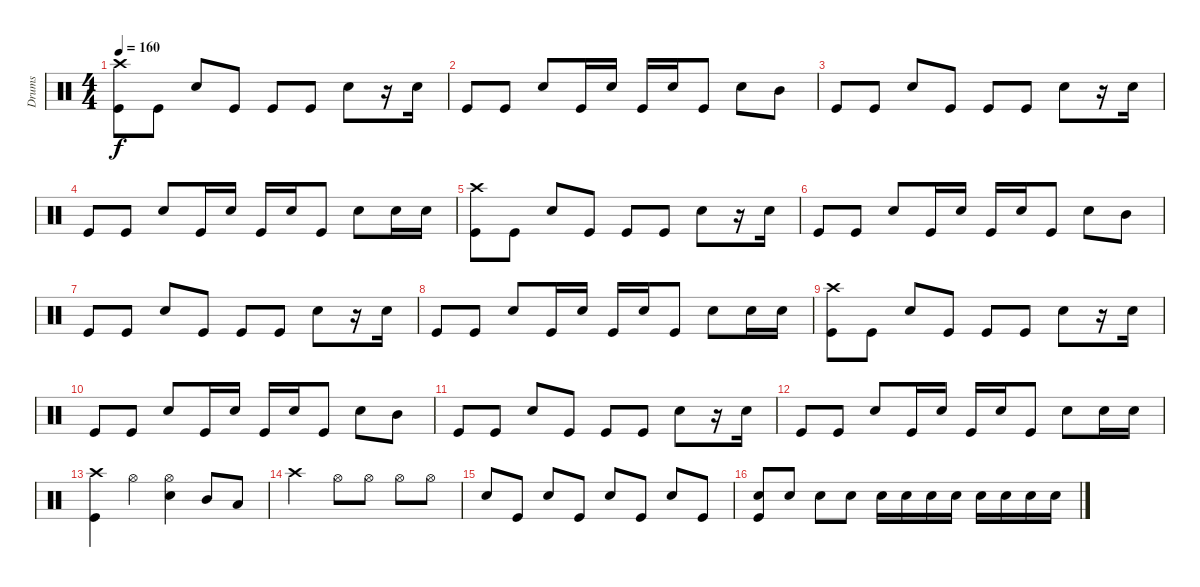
\track ("Drums" "Drums") {instrument percussion}
\staff {score}
\articulation defaults
\ts (4 4)
\tempo 160
\clef neutral
\ks c
("Crash high (hit)" "Kick (hit)").8{dy f} "Kick (hit)".8 "Snare (hit) 2".8 "Kick (hit)".8 "Kick (hit)".8 "Kick (hit)".8 "Snare (hit) 2".8 r.16 "Snare (hit) 2".16 |
"Kick (hit)".8 "Kick (hit)".8 "Snare (hit) 2".8 "Kick (hit)".16 "Snare (hit) 2".16 "Kick (hit)".16 "Snare (hit) 2".16 "Kick (hit)".8 "Snare (hit) 2".8 "Mid Tom (hit)".8 |
"Kick (hit)".8 "Kick (hit)".8 "Snare (hit) 2".8 "Kick (hit)".8 "Kick (hit)".8 "Kick (hit)".8 "Snare (hit) 2".8 r.16 "Snare (hit) 2".16 |
"Kick (hit)".8 "Kick (hit)".8 "Snare (hit) 2".8 "Kick (hit)".16 "Snare (hit) 2".16 "Kick (hit)".16 "Snare (hit) 2".16 "Kick (hit)".8 "Snare (hit) 2".8 "Snare (hit) 2".16 "Snare (hit) 2".16 |
("Crash high (hit)" "Kick (hit)").8 "Kick (hit)".8 "Snare (hit) 2".8 "Kick (hit)".8 "Kick (hit)".8 "Kick (hit)".8 "Snare (hit) 2".8 r.16 "Snare (hit) 2".16 |
"Kick (hit)".8 "Kick (hit)".8 "Snare (hit) 2".8 "Kick (hit)".16 "Snare (hit) 2".16 "Kick (hit)".16 "Snare (hit) 2".16 "Kick (hit)".8 "Snare (hit) 2".8 "Mid Tom (hit)".8 |
"Kick (hit)".8 "Kick (hit)".8 "Snare (hit) 2".8 "Kick (hit)".8 "Kick (hit)".8 "Kick (hit)".8 "Snare (hit) 2".8 r.16 "Snare (hit) 2".16 |
"Kick (hit)".8 "Kick (hit)".8 "Snare (hit) 2".8 "Kick (hit)".16 "Snare (hit) 2".16 "Kick (hit)".16 "Snare (hit) 2".16 "Kick (hit)".8 "Snare (hit) 2".8 "Snare (hit) 2".16 "Snare (hit) 2".16 |
("Crash high (hit)" "Kick (hit)").8 "Kick (hit)".8 "Snare (hit) 2".8 "Kick (hit)".8 "Kick (hit)".8 "Kick (hit)".8 "Snare (hit) 2".8 r.16 "Snare (hit) 2".16 |
"Kick (hit)".8 "Kick (hit)".8 "Snare (hit) 2".8 "Kick (hit)".16 "Snare (hit) 2".16 "Kick (hit)".16 "Snare (hit) 2".16 "Kick (hit)".8 "Snare (hit) 2".8 "Mid Tom (hit)".8 |
"Kick (hit)".8 "Kick (hit)".8 "Snare (hit) 2".8 "Kick (hit)".8 "Kick (hit)".8 "Kick (hit)".8 "Snare (hit) 2".8 r.16 "Snare (hit) 2".16 |
"Kick (hit)".8 "Kick (hit)".8 "Snare (hit) 2".8 "Kick (hit)".16 "Snare (hit) 2".16 "Kick (hit)".16 "Snare (hit) 2".16 "Kick (hit)".8 "Snare (hit) 2".8 "Snare (hit) 2".16 "Snare (hit) 2".16 |
("Crash high (hit)" "Kick (hit)").4 "Hi-Hat (open)".4 ("Hi-Hat (open)" "Snare (hit) 2").4 "Mid Tom (hit)".8 "Low Floor Tom (hit)".8 |
"Crash high (hit)".2 "Hi-Hat (open)".8 "Hi-Hat (open)".8 "Hi-Hat (open)".8 "Hi-Hat (open)".8 |
"Snare (hit) 2".8 "Kick (hit)".8 "Snare (hit) 2".8 "Kick (hit)".8 "Snare (hit) 2".8 "Kick (hit)".8 "Snare (hit) 2".8 "Kick (hit)".8 |
("Snare (hit) 2" "Kick (hit)").8 "Snare (hit) 2".8 "Snare (hit) 2".8 "Snare (hit) 2".8 "Snare (hit) 2".16 "Snare (hit) 2".16 "Snare (hit) 2".16 "Snare (hit) 2".16 "Snare (hit) 2".16 "Snare (hit) 2".16 "Snare (hit) 2".16 "Snare (hit) 2".16
